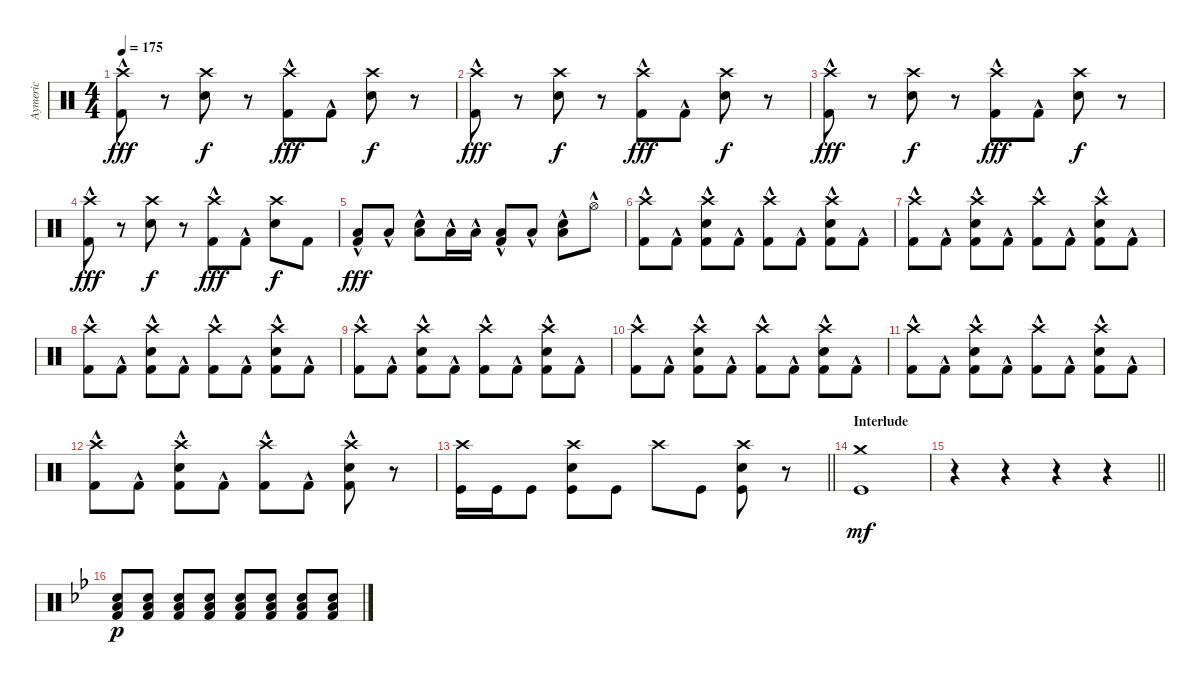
\track ("Aymeric" "Aymeric") {instrument percussion}
\staff {score}
\articulation defaults
\ts (4 4)
\tempo 175
\clef neutral
\ks c
("Crash high (hit)" "Kick (hit) 2"{hac}).8{dy fff} r.8 ("Crash high (hit)" "Snare (hit) 2").8{dy f} r.8 ("Crash high (hit)" "Kick (hit) 2"{hac}).8{dy fff} "Kick (hit) 2"{hac}.8 ("Crash high (hit)" "Snare (hit) 2").8{dy f} r.8 |
("Crash high (hit)" "Kick (hit) 2"{hac}).8{dy fff} r.8 ("Crash high (hit)" "Snare (hit) 2").8{dy f} r.8 ("Crash high (hit)" "Kick (hit) 2"{hac}).8{dy fff} "Kick (hit) 2"{hac}.8 ("Crash high (hit)" "Snare (hit) 2").8{dy f} r.8 |
("Crash high (hit)" "Kick (hit) 2"{hac}).8{dy fff} r.8 ("Crash high (hit)" "Snare (hit) 2").8{dy f} r.8 ("Crash high (hit)" "Kick (hit) 2"{hac}).8{dy fff} "Kick (hit) 2"{hac}.8 ("Crash high (hit)" "Snare (hit) 2").8{dy f} r.8 |
("Crash high (hit)" "Kick (hit) 2"{hac}).8{dy fff} r.8 ("Crash high (hit)" "Snare (hit) 2").8{dy f} r.8 ("Crash high (hit)" "Kick (hit) 2"{hac}).8{dy fff} "Kick (hit) 2"{hac}.8 ("Crash high (hit)" "Snare (hit) 2").8{dy f} "Kick (hit) 2".8 |
("Low Floor Tom (hit)"{hac} "Kick (hit) 2"{hac}).8{dy fff} "Low Floor Tom (hit)"{hac}.8 ("Low Floor Tom (hit)"{hac} "Snare (hit) 2").8 "Low Floor Tom (hit)"{hac}.16 "Low Floor Tom (hit)"{hac}.16 ("Low Floor Tom (hit)"{hac} "Kick (hit) 2").8 "Low Floor Tom (hit)"{hac}.8 ("Low Floor Tom (hit)"{hac} "Snare (hit) 2").8 "Hi-Hat (open)"{hac}.8 |
("Crash high (hit)" "Kick (hit) 2"{hac}).8 "Kick (hit) 2"{hac}.8 ("Crash high (hit)" "Snare (hit) 2" "Kick (hit) 2"{hac}).8 "Kick (hit) 2"{hac}.8 ("Crash high (hit)" "Kick (hit) 2"{hac}).8 "Kick (hit) 2"{hac}.8 ("Crash high (hit)" "Snare (hit) 2" "Kick (hit) 2"{hac}).8 "Kick (hit) 2"{hac}.8 |
("Crash high (hit)" "Kick (hit) 2"{hac}).8 "Kick (hit) 2"{hac}.8 ("Crash high (hit)" "Snare (hit) 2" "Kick (hit) 2"{hac}).8 "Kick (hit) 2"{hac}.8 ("Crash high (hit)" "Kick (hit) 2"{hac}).8 "Kick (hit) 2"{hac}.8 ("Crash high (hit)" "Snare (hit) 2" "Kick (hit) 2"{hac}).8 "Kick (hit) 2"{hac}.8 |
("Crash high (hit)" "Kick (hit) 2"{hac}).8 "Kick (hit) 2"{hac}.8 ("Crash high (hit)" "Snare (hit) 2" "Kick (hit) 2"{hac}).8 "Kick (hit) 2"{hac}.8 ("Crash high (hit)" "Kick (hit) 2"{hac}).8 "Kick (hit) 2"{hac}.8 ("Crash high (hit)" "Snare (hit) 2" "Kick (hit) 2"{hac}).8 "Kick (hit) 2"{hac}.8 |
("Crash high (hit)" "Kick (hit) 2"{hac}).8 "Kick (hit) 2"{hac}.8 ("Crash high (hit)" "Snare (hit) 2" "Kick (hit) 2"{hac}).8 "Kick (hit) 2"{hac}.8 ("Crash high (hit)" "Kick (hit) 2"{hac}).8 "Kick (hit) 2"{hac}.8 ("Crash high (hit)" "Snare (hit) 2" "Kick (hit) 2"{hac}).8 "Kick (hit) 2"{hac}.8 |
("Crash high (hit)" "Kick (hit) 2"{hac}).8 "Kick (hit) 2"{hac}.8 ("Crash high (hit)" "Snare (hit) 2" "Kick (hit) 2"{hac}).8 "Kick (hit) 2"{hac}.8 ("Crash high (hit)" "Kick (hit) 2"{hac}).8 "Kick (hit) 2"{hac}.8 ("Crash high (hit)" "Snare (hit) 2" "Kick (hit) 2"{hac}).8 "Kick (hit) 2"{hac}.8 |
("Crash high (hit)" "Kick (hit) 2"{hac}).8 "Kick (hit) 2"{hac}.8 ("Crash high (hit)" "Snare (hit) 2" "Kick (hit) 2"{hac}).8 "Kick (hit) 2"{hac}.8 ("Crash high (hit)" "Kick (hit) 2"{hac}).8 "Kick (hit) 2"{hac}.8 ("Crash high (hit)" "Snare (hit) 2" "Kick (hit) 2"{hac}).8 "Kick (hit) 2"{hac}.8 |
("Crash high (hit)" "Kick (hit) 2"{hac}).8 "Kick (hit) 2"{hac}.8 ("Crash high (hit)" "Snare (hit) 2" "Kick (hit) 2"{hac}).8 "Kick (hit) 2"{hac}.8 ("Crash high (hit)" "Kick (hit) 2"{hac}).8 "Kick (hit) 2"{hac}.8 ("Crash high (hit)" "Snare (hit) 2" "Kick (hit) 2"{hac}).8 r.8 |
\barLineRight lightlight
("Crash high (hit)" "Kick (hit)").16 "Kick (hit)".16 "Kick (hit)".8 ("Crash high (hit)" "Snare (hit) 2" "Kick (hit)").8 "Kick (hit)".8 "Crash high (hit)".8 "Kick (hit)".8 ("Crash high (hit)" "Snare (hit) 2" "Kick (hit)").8 r.8 |
\section ("" "Interlude")
("Kick (hit)" "Crash medium (hit)").1{dy mf} |
\barLineRight lightlight
r.4 r.4 r.4 r.4 |
\section ("" "")
\ks bb
("Kick (hit) 2" "Electric Snare (hit)" "Low Tom (hit)").8{dy p} ("Kick (hit) 2" "Electric Snare (hit)" "Low Tom (hit)").8 ("Kick (hit) 2" "Electric Snare (hit)" "Low Tom (hit)").8 ("Kick (hit) 2" "Electric Snare (hit)" "Low Tom (hit)").8 ("Kick (hit) 2" "Electric Snare (hit)" "Low Tom (hit)").8 ("Kick (hit) 2" "Electric Snare (hit)" "Low Tom (hit)").8 ("Kick (hit) 2" "Electric Snare (hit)" "Low Tom (hit)").8 ("Kick (hit) 2" "Electric Snare (hit)" "Low Tom (hit)").8
